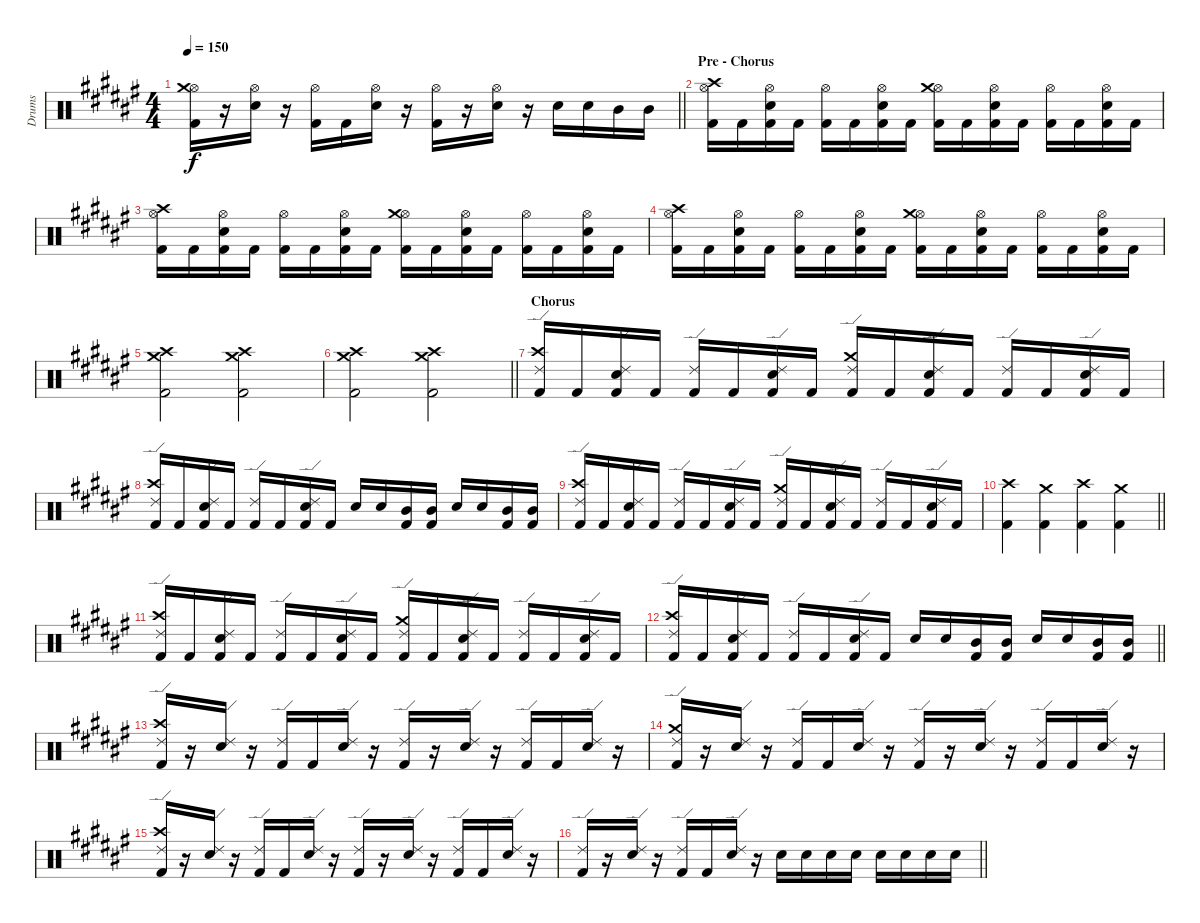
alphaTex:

\track ("Drums" "Drums") {instrument percussion}
\staff {score}
\articulation defaults
\ts (4 4)
\tempo 150
\clef neutral
\barLineRight lightlight
\ks d#minor
("Kick (hit) 2" "Hi-Hat (open)" "Crash medium (hit)").16{dy f} r.16 ("Electric Snare (hit)" "Hi-Hat (open)").16 r.16 ("Kick (hit) 2" "Hi-Hat (open)").16 "Kick (hit) 2".16 ("Electric Snare (hit)" "Hi-Hat (open)").16 r.16 ("Kick (hit) 2" "Hi-Hat (open)").16 r.16 ("Electric Snare (hit)" "Hi-Hat (open)").16 r.16 "Electric Snare (hit)".16 "Electric Snare (hit)".16 "Mid Tom (hit)".16 "Mid Tom (hit)".16 |
\section ("" "Pre - Chorus")
("Kick (hit) 2" "Hi-Hat (open)" "Crash high (hit)").16 "Kick (hit) 2".16 ("Kick (hit) 2" "Electric Snare (hit)" "Hi-Hat (open)").16 "Kick (hit) 2".16 ("Kick (hit) 2" "Hi-Hat (open)").16 "Kick (hit) 2".16 ("Kick (hit) 2" "Electric Snare (hit)" "Hi-Hat (open)").16 "Kick (hit) 2".16 ("Kick (hit) 2" "Hi-Hat (open)" "Crash medium (hit)").16 "Kick (hit) 2".16 ("Kick (hit) 2" "Electric Snare (hit)" "Hi-Hat (open)").16 "Kick (hit) 2".16 ("Kick (hit) 2" "Hi-Hat (open)").16 "Kick (hit) 2".16 ("Kick (hit) 2" "Electric Snare (hit)" "Hi-Hat (open)").16 "Kick (hit) 2".16 |
("Kick (hit) 2" "Hi-Hat (open)" "Crash high (hit)").16 "Kick (hit) 2".16 ("Kick (hit) 2" "Electric Snare (hit)" "Hi-Hat (open)").16 "Kick (hit) 2".16 ("Kick (hit) 2" "Hi-Hat (open)").16 "Kick (hit) 2".16 ("Kick (hit) 2" "Electric Snare (hit)" "Hi-Hat (open)").16 "Kick (hit) 2".16 ("Kick (hit) 2" "Hi-Hat (open)" "Crash medium (hit)").16 "Kick (hit) 2".16 ("Kick (hit) 2" "Electric Snare (hit)" "Hi-Hat (open)").16 "Kick (hit) 2".16 ("Kick (hit) 2" "Hi-Hat (open)").16 "Kick (hit) 2".16 ("Kick (hit) 2" "Electric Snare (hit)" "Hi-Hat (open)").16 "Kick (hit) 2".16 |
("Kick (hit) 2" "Hi-Hat (open)" "Crash high (hit)").16 "Kick (hit) 2".16 ("Kick (hit) 2" "Electric Snare (hit)" "Hi-Hat (open)").16 "Kick (hit) 2".16 ("Kick (hit) 2" "Hi-Hat (open)").16 "Kick (hit) 2".16 ("Kick (hit) 2" "Electric Snare (hit)" "Hi-Hat (open)").16 "Kick (hit) 2".16 ("Kick (hit) 2" "Hi-Hat (open)" "Crash medium (hit)").16 "Kick (hit) 2".16 ("Kick (hit) 2" "Electric Snare (hit)" "Hi-Hat (open)").16 "Kick (hit) 2".16 ("Kick (hit) 2" "Hi-Hat (open)").16 "Kick (hit) 2".16 ("Kick (hit) 2" "Electric Snare (hit)" "Hi-Hat (open)").16 "Kick (hit) 2".16 |
("Kick (hit) 2" "Crash medium (hit)" "Crash high (hit)").2 ("Kick (hit) 2" "Crash medium (hit)" "Crash high (hit)").2 |
\barLineRight lightlight
("Kick (hit) 2" "Crash medium (hit)" "Crash high (hit)").2 ("Kick (hit) 2" "Crash medium (hit)" "Crash high (hit)").2 |
\section ("" "Chorus")
("Kick (hit) 2" "Ride (edge) 2" "Crash high (hit)").16 "Kick (hit) 2".16 ("Kick (hit) 2" "Electric Snare (hit)" "Ride (edge) 2").16 "Kick (hit) 2".16 ("Kick (hit) 2" "Ride (edge) 2").16 "Kick (hit) 2".16 ("Kick (hit) 2" "Electric Snare (hit)" "Ride (edge) 2").16 "Kick (hit) 2".16 ("Kick (hit) 2" "Ride (edge) 2" "Crash medium (hit)").16 "Kick (hit) 2".16 ("Kick (hit) 2" "Electric Snare (hit)" "Ride (edge) 2").16 "Kick (hit) 2".16 ("Kick (hit) 2" "Ride (edge) 2").16 "Kick (hit) 2".16 ("Kick (hit) 2" "Electric Snare (hit)" "Ride (edge) 2").16 "Kick (hit) 2".16 |
("Kick (hit) 2" "Ride (edge) 2" "Crash high (hit)").16 "Kick (hit) 2".16 ("Kick (hit) 2" "Electric Snare (hit)" "Ride (edge) 2").16 "Kick (hit) 2".16 ("Kick (hit) 2" "Ride (edge) 2").16 "Kick (hit) 2".16 ("Kick (hit) 2" "Electric Snare (hit)" "Ride (edge) 2").16 "Kick (hit) 2".16 "Electric Snare (hit)".16 "Electric Snare (hit)".16 ("Kick (hit) 2" "Mid Tom (hit)").16 ("Kick (hit) 2" "Mid Tom (hit)").16 "Electric Snare (hit)".16 "Electric Snare (hit)".16 ("Kick (hit) 2" "Mid Tom (hit)").16 ("Kick (hit) 2" "Mid Tom (hit)").16 |
("Kick (hit) 2" "Ride (edge) 2" "Crash high (hit)").16 "Kick (hit) 2".16 ("Kick (hit) 2" "Electric Snare (hit)" "Ride (edge) 2").16 "Kick (hit) 2".16 ("Kick (hit) 2" "Ride (edge) 2").16 "Kick (hit) 2".16 ("Kick (hit) 2" "Electric Snare (hit)" "Ride (edge) 2").16 "Kick (hit) 2".16 ("Kick (hit) 2" "Ride (edge) 2" "Crash medium (hit)").16 "Kick (hit) 2".16 ("Kick (hit) 2" "Electric Snare (hit)" "Ride (edge) 2").16 "Kick (hit) 2".16 ("Kick (hit) 2" "Ride (edge) 2").16 "Kick (hit) 2".16 ("Kick (hit) 2" "Electric Snare (hit)" "Ride (edge) 2").16 "Kick (hit) 2".16 |
\barLineRight lightlight
("Kick (hit) 2" "Crash high (hit)").4 ("Kick (hit) 2" "Crash medium (hit)").4 ("Kick (hit) 2" "Crash high (hit)").4 ("Kick (hit) 2" "Crash medium (hit)").4 |
("Kick (hit) 2" "Ride (edge) 2" "Crash high (hit)").16 "Kick (hit) 2".16 ("Kick (hit) 2" "Electric Snare (hit)" "Ride (edge) 2").16 "Kick (hit) 2".16 ("Kick (hit) 2" "Ride (edge) 2").16 "Kick (hit) 2".16 ("Kick (hit) 2" "Electric Snare (hit)" "Ride (edge) 2").16 "Kick (hit) 2".16 ("Kick (hit) 2" "Ride (edge) 2" "Crash medium (hit)").16 "Kick (hit) 2".16 ("Kick (hit) 2" "Electric Snare (hit)" "Ride (edge) 2").16 "Kick (hit) 2".16 ("Kick (hit) 2" "Ride (edge) 2").16 "Kick (hit) 2".16 ("Kick (hit) 2" "Electric Snare (hit)" "Ride (edge) 2").16 "Kick (hit) 2".16 |
\barLineRight lightlight
("Kick (hit) 2" "Ride (edge) 2" "Crash high (hit)").16 "Kick (hit) 2".16 ("Kick (hit) 2" "Electric Snare (hit)" "Ride (edge) 2").16 "Kick (hit) 2".16 ("Kick (hit) 2" "Ride (edge) 2").16 "Kick (hit) 2".16 ("Kick (hit) 2" "Electric Snare (hit)" "Ride (edge) 2").16 "Kick (hit) 2".16 "Electric Snare (hit)".16 "Electric Snare (hit)".16 ("Kick (hit) 2" "Mid Tom (hit)").16 ("Kick (hit) 2" "Mid Tom (hit)").16 "Electric Snare (hit)".16 "Electric Snare (hit)".16 ("Kick (hit) 2" "Mid Tom (hit)").16 ("Kick (hit) 2" "Mid Tom (hit)").16 |
("Kick (hit) 2" "Ride (edge) 2" "Crash high (hit)").16 r.16 ("Electric Snare (hit)" "Ride (edge) 2").16 r.16 ("Kick (hit) 2" "Ride (edge) 2").16 "Kick (hit) 2".16 ("Electric Snare (hit)" "Ride (edge) 2").16 r.16 ("Kick (hit) 2" "Ride (edge) 2").16 r.16 ("Electric Snare (hit)" "Ride (edge) 2").16 r.16 ("Kick (hit) 2" "Ride (edge) 2").16 "Kick (hit) 2".16 ("Electric Snare (hit)" "Ride (edge) 2").16 r.16 |
("Kick (hit) 2" "Ride (edge) 2" "Crash medium (hit)").16 r.16 ("Electric Snare (hit)" "Ride (edge) 2").16 r.16 ("Kick (hit) 2" "Ride (edge) 2").16 "Kick (hit) 2".16 ("Electric Snare (hit)" "Ride (edge) 2").16 r.16 ("Kick (hit) 2" "Ride (edge) 2").16 r.16 ("Electric Snare (hit)" "Ride (edge) 2").16 r.16 ("Kick (hit) 2" "Ride (edge) 2").16 "Kick (hit) 2".16 ("Electric Snare (hit)" "Ride (edge) 2").16 r.16 |
("Kick (hit) 2" "Ride (edge) 2" "Crash high (hit)").16 r.16 ("Electric Snare (hit)" "Ride (edge) 2").16 r.16 ("Kick (hit) 2" "Ride (edge) 2").16 "Kick (hit) 2".16 ("Electric Snare (hit)" "Ride (edge) 2").16 r.16 ("Kick (hit) 2" "Ride (edge) 2").16 r.16 ("Electric Snare (hit)" "Ride (edge) 2").16 r.16 ("Kick (hit) 2" "Ride (edge) 2").16 "Kick (hit) 2".16 ("Electric Snare (hit)" "Ride (edge) 2").16 r.16 |
\barLineRight lightlight
("Kick (hit) 2" "Ride (edge) 2").16 r.16 ("Electric Snare (hit)" "Ride (edge) 2").16 r.16 ("Kick (hit) 2" "Ride (edge) 2").16 "Kick (hit) 2".16 ("Electric Snare (hit)" "Ride (edge) 2").16 r.16 "Electric Snare (hit)".16 "Electric Snare (hit)".16 "Electric Snare (hit)".16 "Electric Snare (hit)".16 "Electric Snare (hit)".16 "Electric Snare (hit)".16 "Electric Snare (hit)".16 "Electric Snare (hit)".16
